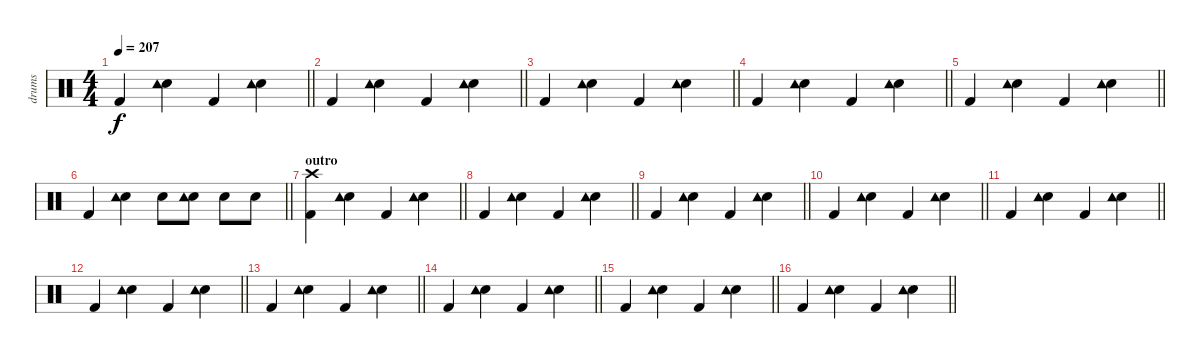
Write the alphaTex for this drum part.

\track ("drums" "drums") {instrument percussion}
\staff {score}
\articulation defaults
\ts (4 4)
\tempo 207
\clef neutral
\barLineRight lightlight
\ks c "Kick (hit) 2".4{dy f}
("Electric Snare (hit)" "Tambourine (hit)").4 "Kick (hit) 2".4 ("Electric Snare (hit)" "Tambourine (hit)").4 |
\barLineRight lightlight "Kick (hit) 2".4
("Electric Snare (hit)" "Tambourine (hit)").4 "Kick (hit) 2".4 ("Electric Snare (hit)" "Tambourine (hit)").4 |
\barLineRight lightlight "Kick (hit) 2".4
("Electric Snare (hit)" "Tambourine (hit)").4 "Kick (hit) 2".4 ("Electric Snare (hit)" "Tambourine (hit)").4 |
\barLineRight lightlight "Kick (hit) 2".4
("Electric Snare (hit)" "Tambourine (hit)").4 "Kick (hit) 2".4 ("Electric Snare (hit)" "Tambourine (hit)").4 |
\barLineRight lightlight "Kick (hit) 2".4
("Electric Snare (hit)" "Tambourine (hit)").4 "Kick (hit) 2".4 ("Electric Snare (hit)" "Tambourine (hit)").4 |
\barLineRight lightlight "Kick (hit) 2".4
("Electric Snare (hit)" "Tambourine (hit)").4 "Electric Snare (hit)".8 ("Electric Snare (hit)" "Tambourine (hit)").8 "Electric Snare (hit)".8 "Electric Snare (hit)".8 |
\section ("" "outro")
\barLineRight lightlight
("Kick (hit) 2" "Crash high (hit)").4 ("Electric Snare (hit)" "Tambourine (hit)").4 "Kick (hit) 2".4 ("Electric Snare (hit)" "Tambourine (hit)").4 |
\barLineRight lightlight "Kick (hit) 2".4
("Electric Snare (hit)" "Tambourine (hit)").4 "Kick (hit) 2".4 ("Electric Snare (hit)" "Tambourine (hit)").4 |
\barLineRight lightlight "Kick (hit) 2".4
("Electric Snare (hit)" "Tambourine (hit)").4 "Kick (hit) 2".4 ("Electric Snare (hit)" "Tambourine (hit)").4 |
\barLineRight lightlight "Kick (hit) 2".4
("Electric Snare (hit)" "Tambourine (hit)").4 "Kick (hit) 2".4 ("Electric Snare (hit)" "Tambourine (hit)").4 |
\barLineRight lightlight "Kick (hit) 2".4
("Electric Snare (hit)" "Tambourine (hit)").4 "Kick (hit) 2".4 ("Electric Snare (hit)" "Tambourine (hit)").4 |
\barLineRight lightlight "Kick (hit) 2".4
("Electric Snare (hit)" "Tambourine (hit)").4 "Kick (hit) 2".4 ("Electric Snare (hit)" "Tambourine (hit)").4 |
\barLineRight lightlight "Kick (hit) 2".4
("Electric Snare (hit)" "Tambourine (hit)").4 "Kick (hit) 2".4 ("Electric Snare (hit)" "Tambourine (hit)").4 |
\barLineRight lightlight "Kick (hit) 2".4
("Electric Snare (hit)" "Tambourine (hit)").4 "Kick (hit) 2".4 ("Electric Snare (hit)" "Tambourine (hit)").4 |
\barLineRight lightlight "Kick (hit) 2".4
("Electric Snare (hit)" "Tambourine (hit)").4 "Kick (hit) 2".4 ("Electric Snare (hit)" "Tambourine (hit)").4 |
\barLineRight lightlight "Kick (hit) 2".4
("Electric Snare (hit)" "Tambourine (hit)").4 "Kick (hit) 2".4 ("Electric Snare (hit)" "Tambourine (hit)").4
